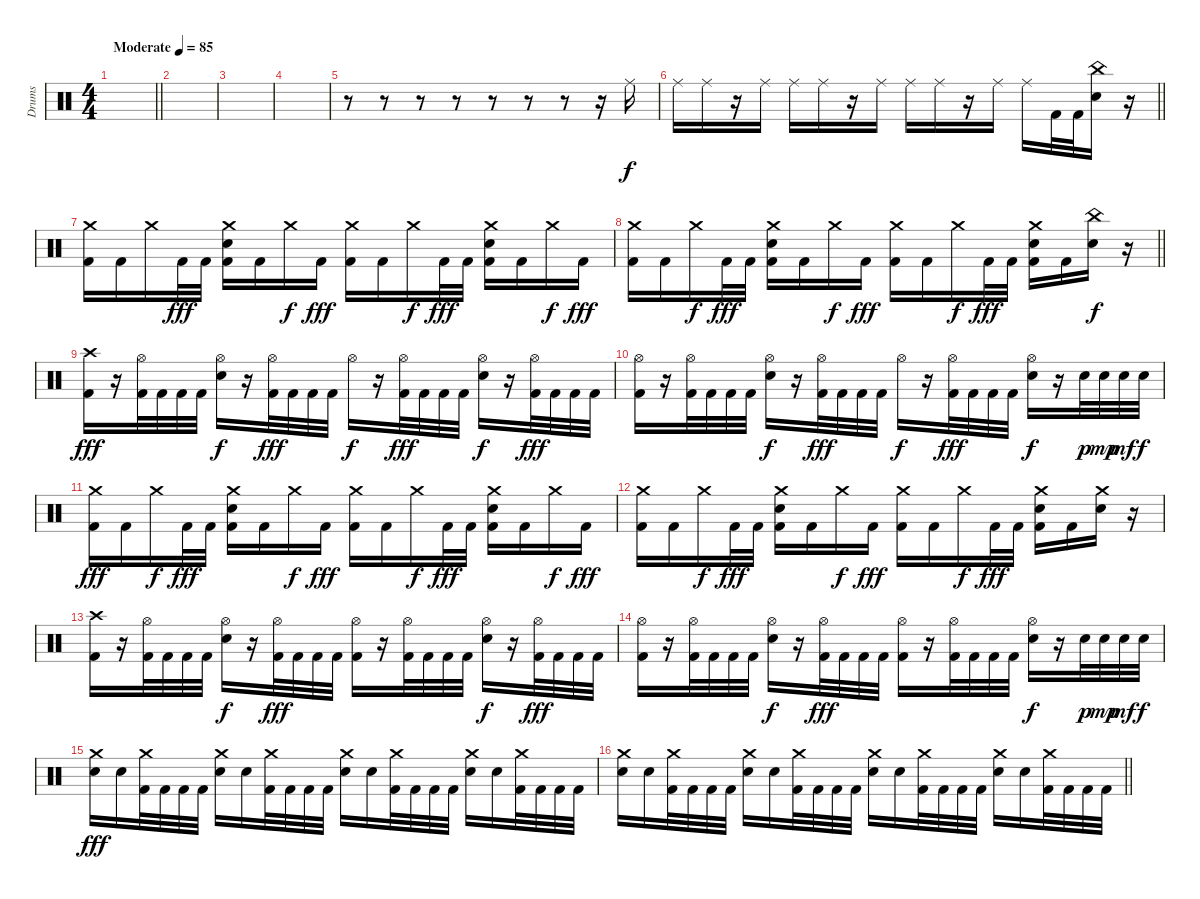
\track ("Drums" "Drums") {instrument percussion}
\staff {score}
\articulation defaults
\ts (4 4)
\tempo (85 "Moderate")
\clef neutral
\barLineRight lightlight
\ks c
|
\section ("" "")
|
|
|
r.8 r.8 r.8 r.8 r.8 r.8 r.8 r.16 "Ride (middle)".16 |
\barLineRight lightlight "Ride (middle)".16 "Ride (middle)".16
r.16 "Ride (middle)".16 "Ride (middle)".16 "Ride (middle)".16 r.16 "Ride (middle)".16 "Ride (middle)".16 "Ride (middle)".16 r.16 "Ride (middle)".16 "Ride (middle)".16 "Kick (hit) 2".32 "Kick (hit) 2".32 ("China (hit)" "Electric Snare (hit)").16 r.16 |
\section ("" "")
("Crash medium (hit)" "Kick (hit) 2").16 "Kick (hit) 2".16 "Crash medium (hit)".16{dy f} "Kick (hit) 2".32{dy fff} "Kick (hit) 2".32 ("Crash medium (hit)" "Electric Snare (hit)" "Kick (hit) 2").16 "Kick (hit) 2".16 "Crash medium (hit)".16{dy f} "Kick (hit) 2".16{dy fff} ("Crash medium (hit)" "Kick (hit) 2").16 "Kick (hit) 2".16 "Crash medium (hit)".16{dy f} "Kick (hit) 2".32{dy fff} "Kick (hit) 2".32 ("Crash medium (hit)" "Electric Snare (hit)" "Kick (hit) 2").16 "Kick (hit) 2".16 "Crash medium (hit)".16{dy f} "Kick (hit) 2".16{dy fff} |
\barLineRight lightlight
("Crash medium (hit)" "Kick (hit) 2").16 "Kick (hit) 2".16 "Crash medium (hit)".16{dy f} "Kick (hit) 2".32{dy fff} "Kick (hit) 2".32 ("Crash medium (hit)" "Electric Snare (hit)" "Kick (hit) 2").16 "Kick (hit) 2".16 "Crash medium (hit)".16{dy f} "Kick (hit) 2".16{dy fff} ("Crash medium (hit)" "Kick (hit) 2").16 "Kick (hit) 2".16 "Crash medium (hit)".16{dy f} "Kick (hit) 2".32{dy fff} "Kick (hit) 2".32 ("Crash medium (hit)" "Electric Snare (hit)" "Kick (hit) 2").16 "Kick (hit) 2".16 ("China (hit)" "Electric Snare (hit)").16{dy f} r.16 |
\section ("" "")
("Crash high (hit)" "Kick (hit) 2").16{dy fff} r.16 ("Hi-Hat (open)" "Kick (hit) 2").32 "Kick (hit) 2".32 "Kick (hit) 2".32 "Kick (hit) 2".32 ("Hi-Hat (open)" "Electric Snare (hit)").16{dy f} r.16 ("Hi-Hat (open)" "Kick (hit) 2").32{dy fff} "Kick (hit) 2".32 "Kick (hit) 2".32 "Kick (hit) 2".32 "Hi-Hat (open)".16{dy f} r.16 ("Hi-Hat (open)" "Kick (hit) 2").32{dy fff} "Kick (hit) 2".32 "Kick (hit) 2".32 "Kick (hit) 2".32 ("Hi-Hat (open)" "Electric Snare (hit)").16{dy f} r.16 ("Hi-Hat (open)" "Kick (hit) 2").32{dy fff} "Kick (hit) 2".32 "Kick (hit) 2".32 "Kick (hit) 2".32 |
("Hi-Hat (open)" "Kick (hit) 2").16 r.16 ("Hi-Hat (open)" "Kick (hit) 2").32 "Kick (hit) 2".32 "Kick (hit) 2".32 "Kick (hit) 2".32 ("Hi-Hat (open)" "Electric Snare (hit)").16{dy f} r.16 ("Hi-Hat (open)" "Kick (hit) 2").32{dy fff} "Kick (hit) 2".32 "Kick (hit) 2".32 "Kick (hit) 2".32 "Hi-Hat (open)".16{dy f} r.16 ("Hi-Hat (open)" "Kick (hit) 2").32{dy fff} "Kick (hit) 2".32 "Kick (hit) 2".32 "Kick (hit) 2".32 ("Hi-Hat (open)" "Electric Snare (hit)").16{dy f} r.16 "Electric Snare (hit)".32{dy p} "Electric Snare (hit)".32{dy mp} "Electric Snare (hit)".32{dy mf} "Electric Snare (hit)".32{dy f} |
("Crash medium (hit)" "Kick (hit) 2").16{dy fff} "Kick (hit) 2".16 "Crash medium (hit)".16{dy f} "Kick (hit) 2".32{dy fff} "Kick (hit) 2".32 ("Crash medium (hit)" "Electric Snare (hit)" "Kick (hit) 2").16 "Kick (hit) 2".16 "Crash medium (hit)".16{dy f} "Kick (hit) 2".16{dy fff} ("Crash medium (hit)" "Kick (hit) 2").16 "Kick (hit) 2".16 "Crash medium (hit)".16{dy f} "Kick (hit) 2".32{dy fff} "Kick (hit) 2".32 ("Crash medium (hit)" "Electric Snare (hit)" "Kick (hit) 2").16 "Kick (hit) 2".16 "Crash medium (hit)".16{dy f} "Kick (hit) 2".16{dy fff} |
("Crash medium (hit)" "Kick (hit) 2").16 "Kick (hit) 2".16 "Crash medium (hit)".16{dy f} "Kick (hit) 2".32{dy fff} "Kick (hit) 2".32 ("Crash medium (hit)" "Electric Snare (hit)" "Kick (hit) 2").16 "Kick (hit) 2".16 "Crash medium (hit)".16{dy f} "Kick (hit) 2".16{dy fff} ("Crash medium (hit)" "Kick (hit) 2").16 "Kick (hit) 2".16 "Crash medium (hit)".16{dy f} "Kick (hit) 2".32{dy fff} "Kick (hit) 2".32 ("Crash medium (hit)" "Electric Snare (hit)" "Kick (hit) 2").16 "Kick (hit) 2".16 ("Crash medium (hit)" "Electric Snare (hit)").16 r.16 |
("Crash high (hit)" "Kick (hit) 2").16 r.16 ("Hi-Hat (open)" "Kick (hit) 2").32 "Kick (hit) 2".32 "Kick (hit) 2".32 "Kick (hit) 2".32 ("Hi-Hat (open)" "Electric Snare (hit)").16{dy f} r.16 ("Hi-Hat (open)" "Kick (hit) 2").32{dy fff} "Kick (hit) 2".32 "Kick (hit) 2".32 "Kick (hit) 2".32 ("Hi-Hat (open)" "Kick (hit) 2").16 r.16 ("Hi-Hat (open)" "Kick (hit) 2").32 "Kick (hit) 2".32 "Kick (hit) 2".32 "Kick (hit) 2".32 ("Hi-Hat (open)" "Electric Snare (hit)").16{dy f} r.16 ("Hi-Hat (open)" "Kick (hit) 2").32{dy fff} "Kick (hit) 2".32 "Kick (hit) 2".32 "Kick (hit) 2".32 |
("Hi-Hat (open)" "Kick (hit) 2").16 r.16 ("Hi-Hat (open)" "Kick (hit) 2").32 "Kick (hit) 2".32 "Kick (hit) 2".32 "Kick (hit) 2".32 ("Hi-Hat (open)" "Electric Snare (hit)").16{dy f} r.16 ("Hi-Hat (open)" "Kick (hit) 2").32{dy fff} "Kick (hit) 2".32 "Kick (hit) 2".32 "Kick (hit) 2".32 ("Hi-Hat (open)" "Kick (hit) 2").16 r.16 ("Hi-Hat (open)" "Kick (hit) 2").32 "Kick (hit) 2".32 "Kick (hit) 2".32 "Kick (hit) 2".32 ("Hi-Hat (open)" "Electric Snare (hit)").16{dy f} r.16 "Electric Snare (hit)".32{dy p} "Electric Snare (hit)".32{dy mp} "Electric Snare (hit)".32{dy mf} "Electric Snare (hit)".32{dy f} |
("Crash medium (hit)" "Electric Snare (hit)").16{dy fff} "Electric Snare (hit)".16 ("Crash medium (hit)" "Kick (hit) 2").32 "Kick (hit) 2".32 "Kick (hit) 2".32 "Kick (hit) 2".32 ("Crash medium (hit)" "Electric Snare (hit)").16 "Electric Snare (hit)".16 ("Crash medium (hit)" "Kick (hit) 2").32 "Kick (hit) 2".32 "Kick (hit) 2".32 "Kick (hit) 2".32 ("Crash medium (hit)" "Electric Snare (hit)").16 "Electric Snare (hit)".16 ("Crash medium (hit)" "Kick (hit) 2").32 "Kick (hit) 2".32 "Kick (hit) 2".32 "Kick (hit) 2".32 ("Crash medium (hit)" "Electric Snare (hit)").16 "Electric Snare (hit)".16 ("Crash medium (hit)" "Kick (hit) 2").32 "Kick (hit) 2".32 "Kick (hit) 2".32 "Kick (hit) 2".32 |
\barLineRight lightlight
("Crash medium (hit)" "Electric Snare (hit)").16 "Electric Snare (hit)".16 ("Crash medium (hit)" "Kick (hit) 2").32 "Kick (hit) 2".32 "Kick (hit) 2".32 "Kick (hit) 2".32 ("Crash medium (hit)" "Electric Snare (hit)").16 "Electric Snare (hit)".16 ("Crash medium (hit)" "Kick (hit) 2").32 "Kick (hit) 2".32 "Kick (hit) 2".32 "Kick (hit) 2".32 ("Crash medium (hit)" "Electric Snare (hit)").16 "Electric Snare (hit)".16 ("Crash medium (hit)" "Kick (hit) 2").32 "Kick (hit) 2".32 "Kick (hit) 2".32 "Kick (hit) 2".32 ("Crash medium (hit)" "Electric Snare (hit)").16 "Electric Snare (hit)".16 ("Crash medium (hit)" "Kick (hit) 2").32 "Kick (hit) 2".32 "Kick (hit) 2".32 "Kick (hit) 2".32
